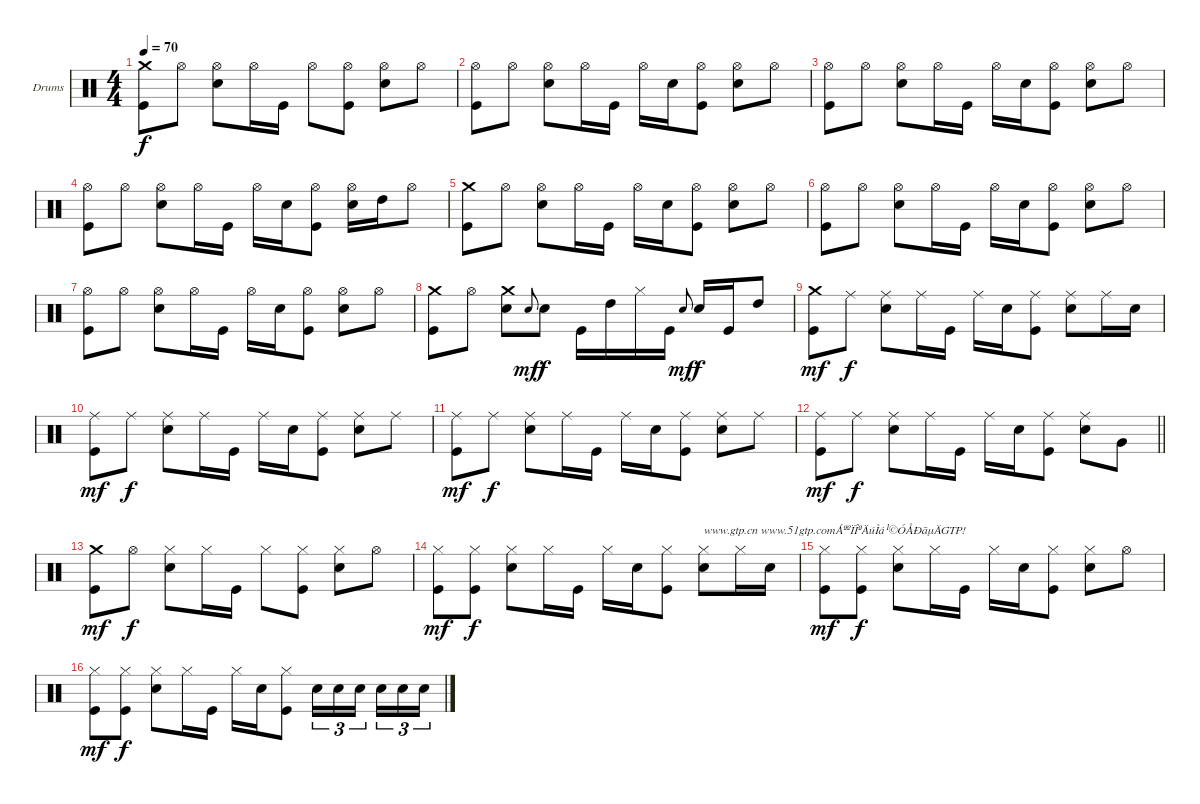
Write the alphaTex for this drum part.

\bracketExtendMode groupsimilarinstruments
\firstSystemTrackNameOrientation horizontal
\otherSystemsTrackNameOrientation horizontal
\track ("Drumkit" "Drums") {instrument percussion}
\staff {score}
\articulation defaults
\ts (4 4)
\tempo 70
\clef neutral
\ks c
("Crash medium (hit)" "Kick (hit)").8{dy f} "Hi-Hat (open)".8 ("Hi-Hat (open)" "Snare (hit) 2").8 "Hi-Hat (open)".16 "Kick (hit)".16 "Hi-Hat (open)".8 ("Hi-Hat (open)" "Kick (hit)").8 ("Hi-Hat (open)" "Snare (hit) 2").8 "Hi-Hat (open)".8 |
("Hi-Hat (open)" "Kick (hit)").8 "Hi-Hat (open)".8 ("Hi-Hat (open)" "Snare (hit) 2").8 "Hi-Hat (open)".16 "Kick (hit)".16 "Hi-Hat (open)".16 "Snare (hit) 2".16 ("Hi-Hat (open)" "Kick (hit)").8 ("Hi-Hat (open)" "Snare (hit) 2").8 "Hi-Hat (open)".8 |
("Hi-Hat (open)" "Kick (hit)").8 "Hi-Hat (open)".8 ("Hi-Hat (open)" "Snare (hit) 2").8 "Hi-Hat (open)".16 "Kick (hit)".16 "Hi-Hat (open)".16 "Snare (hit) 2".16 ("Hi-Hat (open)" "Kick (hit)").8 ("Hi-Hat (open)" "Snare (hit) 2").8 "Hi-Hat (open)".8 |
("Hi-Hat (open)" "Kick (hit)").8 "Hi-Hat (open)".8 ("Hi-Hat (open)" "Snare (hit) 2").8 "Hi-Hat (open)".16 "Kick (hit)".16 "Hi-Hat (open)".16 "Snare (hit) 2".16 ("Hi-Hat (open)" "Kick (hit)").8 ("Hi-Hat (open)" "Snare (hit) 2").16 "High Tom (hit)".16 "Hi-Hat (open)".8 |
("Crash medium (hit)" "Kick (hit)").8 "Hi-Hat (open)".8 ("Hi-Hat (open)" "Snare (hit) 2").8 "Hi-Hat (open)".16 "Kick (hit)".16 "Hi-Hat (open)".16 "Snare (hit) 2".16 ("Hi-Hat (open)" "Kick (hit)").8 ("Hi-Hat (open)" "Snare (hit) 2").8 "Hi-Hat (open)".8 |
("Hi-Hat (open)" "Kick (hit)").8 "Hi-Hat (open)".8 ("Hi-Hat (open)" "Snare (hit) 2").8 "Hi-Hat (open)".16 "Kick (hit)".16 "Hi-Hat (open)".16 "Snare (hit) 2".16 ("Hi-Hat (open)" "Kick (hit)").8 ("Hi-Hat (open)" "Snare (hit) 2").8 "Hi-Hat (open)".8 |
("Hi-Hat (open)" "Kick (hit)").8 "Hi-Hat (open)".8 ("Hi-Hat (open)" "Snare (hit) 2").8 "Hi-Hat (open)".16 "Kick (hit)".16 "Hi-Hat (open)".16 "Snare (hit) 2".16 ("Hi-Hat (open)" "Kick (hit)").8 ("Hi-Hat (open)" "Snare (hit) 2").8 "Hi-Hat (open)".8 |
("Crash medium (hit)" "Kick (hit)").8 "Hi-Hat (open)".8 ("Crash medium (hit)" "Snare (hit) 2").8 "Snare (hit) 2".8{gr onbeat dy mf} "Snare (hit) 2".8{dy f} "Kick (hit)".16 "High Tom (hit)".16 "Hi-Hat (closed)".16 "Kick (hit)".16 "Snare (hit) 2".8{gr onbeat dy mf} "Snare (hit) 2".16{dy f} "Kick (hit)".16 "High Tom (hit)".8 |
("Crash medium (hit)" "Kick (hit)").8{dy mf} "Ride (middle)".8{dy f} ("Ride (middle)" "Snare (hit) 2").8 "Ride (middle)".16 "Kick (hit)".16 "Ride (middle)".16 "Snare (hit) 2".16 ("Ride (middle)" "Kick (hit)").8 ("Ride (middle)" "Snare (hit) 2").8 "Ride (middle)".16 "Snare (hit) 2".16 |
("Ride (middle)" "Kick (hit)").8{dy mf} "Ride (middle)".8{dy f} ("Ride (middle)" "Snare (hit) 2").8 "Ride (middle)".16 "Kick (hit)".16 "Ride (middle)".16 "Snare (hit) 2".16 ("Ride (middle)" "Kick (hit)").8 ("Ride (middle)" "Snare (hit) 2").8 "Ride (middle)".8 |
("Ride (middle)" "Kick (hit)").8{dy mf} "Ride (middle)".8{dy f} ("Ride (middle)" "Snare (hit) 2").8 "Ride (middle)".16 "Kick (hit)".16 "Ride (middle)".16 "Snare (hit) 2".16 ("Ride (middle)" "Kick (hit)").8 ("Ride (middle)" "Snare (hit) 2").8 "Ride (middle)".8 |
\barLineRight lightlight
("Ride (middle)" "Kick (hit)").8{dy mf} "Ride (middle)".8{dy f} ("Ride (middle)" "Snare (hit) 2").8 "Ride (middle)".16 "Kick (hit)".16 "Ride (middle)".16 "Snare (hit) 2".16 ("Ride (middle)" "Kick (hit)").8 ("Ride (middle)" "Snare (hit) 2").8 "Very Low Tom (hit)".8 |
\section ("" "")
("Crash medium (hit)" "Kick (hit)").8{dy mf} "Hi-Hat (open)".8{dy f} ("Hi-Hat (closed)" "Snare (hit) 2").8 "Hi-Hat (closed)".16 "Kick (hit)".16 "Hi-Hat (closed)".8 ("Hi-Hat (closed)" "Kick (hit)").8 ("Hi-Hat (closed)" "Snare (hit) 2").8 "Hi-Hat (open)".8 |
("Hi-Hat (closed)" "Kick (hit)").8{dy mf} ("Hi-Hat (closed)" "Kick (hit)").8{dy f} ("Hi-Hat (closed)" "Snare (hit) 2").8 "Hi-Hat (closed)".16 "Kick (hit)".16 "Hi-Hat (closed)".16 "Snare (hit) 2".16 ("Hi-Hat (closed)" "Kick (hit)").8 ("Hi-Hat (closed)" "Snare (hit) 2").8{txt "www.gtp.cn www.51gtp.comÁªºÏÎªÄúÌá¹©ÓÅÐãµÄGTP!"} "Hi-Hat (closed)".16 "Snare (hit) 2".16 |
("Hi-Hat (closed)" "Kick (hit)").8{dy mf} ("Hi-Hat (closed)" "Kick (hit)").8{dy f} ("Hi-Hat (closed)" "Snare (hit) 2").8 "Hi-Hat (closed)".16 "Kick (hit)".16 "Hi-Hat (closed)".16 "Snare (hit) 2".16 ("Hi-Hat (closed)" "Kick (hit)").8 ("Hi-Hat (closed)" "Snare (hit) 2").8 "Hi-Hat (open)".8 |
("Hi-Hat (closed)" "Kick (hit)").8{dy mf} ("Hi-Hat (closed)" "Kick (hit)").8{dy f} ("Hi-Hat (closed)" "Snare (hit) 2").8 "Hi-Hat (closed)".16 "Kick (hit)".16 "Hi-Hat (closed)".16 "Snare (hit) 2".16 ("Hi-Hat (closed)" "Kick (hit)").8 "Snare (hit) 2".16{tu (3 2)} "Snare (hit) 2".16{tu (3 2)} "Snare (hit) 2".16{tu (3 2)} "Snare (hit) 2".16{tu (3 2)} "Snare (hit) 2".16{tu (3 2)} "Snare (hit) 2".16{tu (3 2)}
